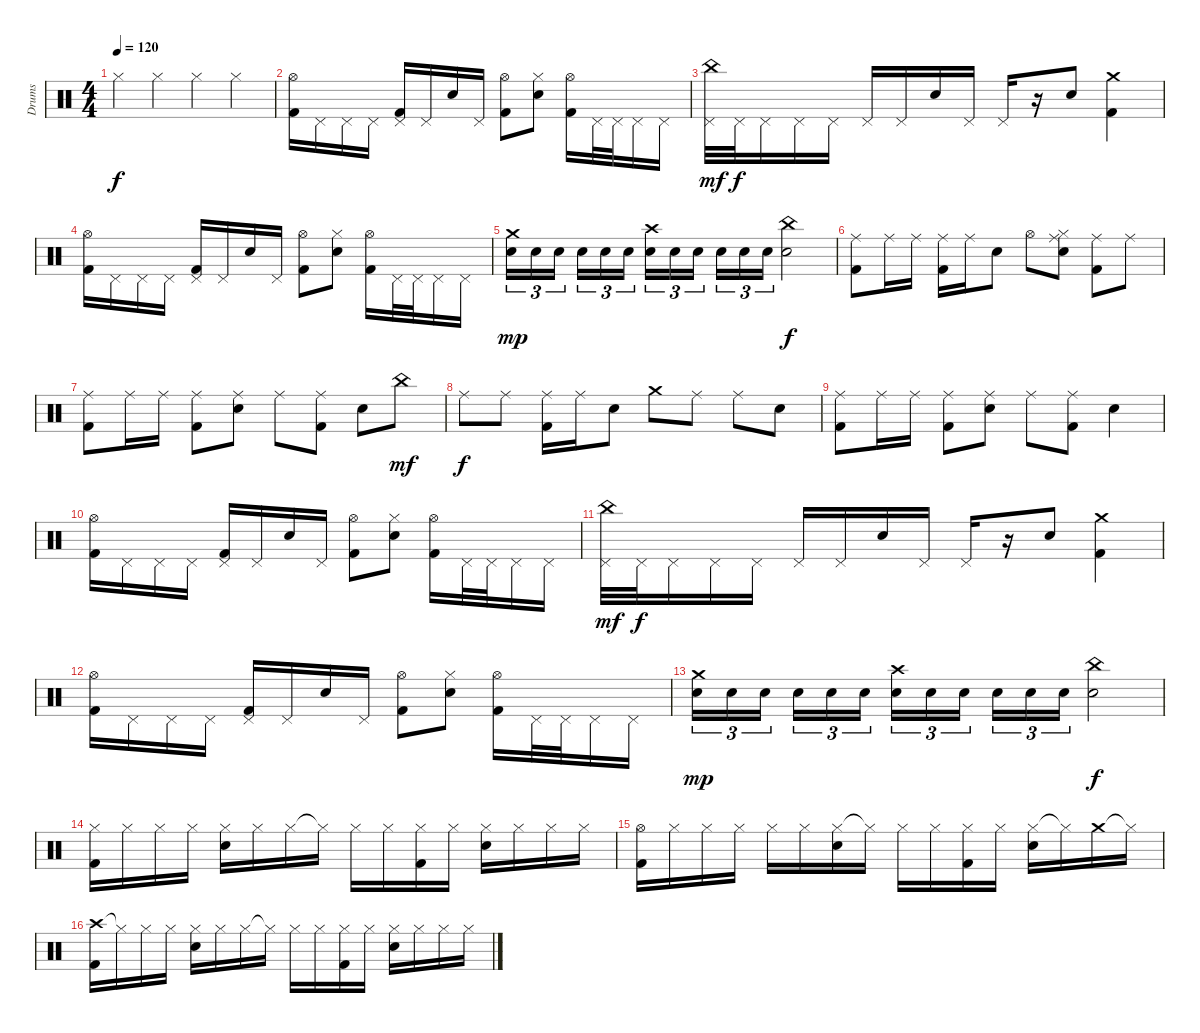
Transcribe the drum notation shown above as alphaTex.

\track ("Drums" "Drums") {instrument percussion}
\staff {score}
\articulation defaults
\ts (4 4)
\tempo 120
\clef neutral
\ks c "Hi-Hat (closed)".4{dy f} "Hi-Hat (closed)".4 "Hi-Hat (closed)".4 "Hi-Hat (closed)".4
|
("Hi-Hat (open)" "Kick (hit) 2").16 "Pedal Hi-Hat (hit)".16 "Pedal Hi-Hat (hit)".16 "Pedal Hi-Hat (hit)".16 ("Pedal Hi-Hat (hit)" "Kick (hit) 2").16 "Pedal Hi-Hat (hit)".16 "Electric Snare (hit)".16 "Pedal Hi-Hat (hit)".16 ("Hi-Hat (open)" "Kick (hit) 2").8 ("Hi-Hat (closed)" "Electric Snare (hit)").8 ("Hi-Hat (open)" "Kick (hit) 2").16 "Pedal Hi-Hat (hit)".32 "Pedal Hi-Hat (hit)".32 "Pedal Hi-Hat (hit)".16 "Pedal Hi-Hat (hit)".16 |
("China (hit)" "Pedal Hi-Hat (hit)").32{dy mf} "Pedal Hi-Hat (hit)".32{dy f} "Pedal Hi-Hat (hit)".16 "Pedal Hi-Hat (hit)".16 "Pedal Hi-Hat (hit)".16 "Pedal Hi-Hat (hit)".16 "Pedal Hi-Hat (hit)".16 "Electric Snare (hit)".16 "Pedal Hi-Hat (hit)".16 "Pedal Hi-Hat (hit)".16 r.16 "Electric Snare (hit)".8 ("Crash medium (hit)" "Kick (hit) 2").4 |
("Hi-Hat (open)" "Kick (hit) 2").16 "Pedal Hi-Hat (hit)".16 "Pedal Hi-Hat (hit)".16 "Pedal Hi-Hat (hit)".16 ("Pedal Hi-Hat (hit)" "Kick (hit) 2").16 "Pedal Hi-Hat (hit)".16 "Electric Snare (hit)".16 "Pedal Hi-Hat (hit)".16 ("Hi-Hat (open)" "Kick (hit) 2").8 ("Hi-Hat (closed)" "Electric Snare (hit)").8 ("Hi-Hat (open)" "Kick (hit) 2").16 "Pedal Hi-Hat (hit)".32 "Pedal Hi-Hat (hit)".32 "Pedal Hi-Hat (hit)".16 "Pedal Hi-Hat (hit)".16 |
("Crash medium (hit)" "Electric Snare (hit)").16{tu (3 2) dy mp} "Electric Snare (hit)".16{tu (3 2)} "Electric Snare (hit)".16{tu (3 2)} "Electric Snare (hit)".16{tu (3 2)} "Electric Snare (hit)".16{tu (3 2)} "Electric Snare (hit)".16{tu (3 2)} ("Crash high (hit)" "Electric Snare (hit)").16{tu (3 2)} "Electric Snare (hit)".16{tu (3 2)} "Electric Snare (hit)".16{tu (3 2)} "Electric Snare (hit)".16{tu (3 2)} "Electric Snare (hit)".16{tu (3 2)} "Electric Snare (hit)".16{tu (3 2)} ("China (hit)" "Electric Snare (hit)").2{dy f} |
("Ride (middle)" "Kick (hit) 2").8 "Ride (middle)".16 "Ride (middle)".16 ("Ride (middle)" "Kick (hit) 2").16 "Ride (middle)".16 "Electric Snare (hit)".8 "Hi-Hat (open)".8 ("Ride (middle)" "Hi-Hat (closed)" "Electric Snare (hit)").8 ("Ride (middle)" "Kick (hit) 2").8 "Ride (middle)".8 |
("Ride (middle)" "Kick (hit) 2").8 "Ride (middle)".16 "Ride (middle)".16 ("Ride (middle)" "Kick (hit) 2").8 ("Ride (middle)" "Electric Snare (hit)").8 "Ride (middle)".8 ("Ride (middle)" "Kick (hit) 2").8 "Electric Snare (hit)".8 "China (hit)".8{dy mf} |
"Ride (middle)".8{dy f} "Ride (middle)".8 ("Ride (middle)" "Kick (hit) 2").16 "Ride (middle)".16 "Electric Snare (hit)".8 "Crash medium (hit)".8 "Ride (middle)".8 "Ride (middle)".8 "Electric Snare (hit)".8 |
("Ride (middle)" "Kick (hit) 2").8 "Ride (middle)".16 "Ride (middle)".16 ("Ride (middle)" "Kick (hit) 2").8 ("Ride (middle)" "Electric Snare (hit)").8 "Ride (middle)".8 ("Ride (middle)" "Kick (hit) 2").8 "Electric Snare (hit)".4 |
("Hi-Hat (open)" "Kick (hit) 2").16 "Pedal Hi-Hat (hit)".16 "Pedal Hi-Hat (hit)".16 "Pedal Hi-Hat (hit)".16 ("Pedal Hi-Hat (hit)" "Kick (hit) 2").16 "Pedal Hi-Hat (hit)".16 "Electric Snare (hit)".16 "Pedal Hi-Hat (hit)".16 ("Hi-Hat (open)" "Kick (hit) 2").8 ("Hi-Hat (closed)" "Electric Snare (hit)").8 ("Hi-Hat (open)" "Kick (hit) 2").16 "Pedal Hi-Hat (hit)".32 "Pedal Hi-Hat (hit)".32 "Pedal Hi-Hat (hit)".16 "Pedal Hi-Hat (hit)".16 |
("China (hit)" "Pedal Hi-Hat (hit)").32{dy mf} "Pedal Hi-Hat (hit)".32{dy f} "Pedal Hi-Hat (hit)".16 "Pedal Hi-Hat (hit)".16 "Pedal Hi-Hat (hit)".16 "Pedal Hi-Hat (hit)".16 "Pedal Hi-Hat (hit)".16 "Electric Snare (hit)".16 "Pedal Hi-Hat (hit)".16 "Pedal Hi-Hat (hit)".16 r.16 "Electric Snare (hit)".8 ("Crash medium (hit)" "Kick (hit) 2").4 |
("Hi-Hat (open)" "Kick (hit) 2").16 "Pedal Hi-Hat (hit)".16 "Pedal Hi-Hat (hit)".16 "Pedal Hi-Hat (hit)".16 ("Pedal Hi-Hat (hit)" "Kick (hit) 2").16 "Pedal Hi-Hat (hit)".16 "Electric Snare (hit)".16 "Pedal Hi-Hat (hit)".16 ("Hi-Hat (open)" "Kick (hit) 2").8 ("Hi-Hat (closed)" "Electric Snare (hit)").8 ("Hi-Hat (open)" "Kick (hit) 2").16 "Pedal Hi-Hat (hit)".32 "Pedal Hi-Hat (hit)".32 "Pedal Hi-Hat (hit)".16 "Pedal Hi-Hat (hit)".16 |
("Crash medium (hit)" "Electric Snare (hit)").16{tu (3 2) dy mp} "Electric Snare (hit)".16{tu (3 2)} "Electric Snare (hit)".16{tu (3 2)} "Electric Snare (hit)".16{tu (3 2)} "Electric Snare (hit)".16{tu (3 2)} "Electric Snare (hit)".16{tu (3 2)} ("Crash high (hit)" "Electric Snare (hit)").16{tu (3 2)} "Electric Snare (hit)".16{tu (3 2)} "Electric Snare (hit)".16{tu (3 2)} "Electric Snare (hit)".16{tu (3 2)} "Electric Snare (hit)".16{tu (3 2)} "Electric Snare (hit)".16{tu (3 2)} ("China (hit)" "Electric Snare (hit)").2{dy f} |
("Hi-Hat (closed)" "Kick (hit) 2").16 "Hi-Hat (closed)".16 "Hi-Hat (closed)".16 "Hi-Hat (closed)".16 ("Hi-Hat (closed)" "Electric Snare (hit)").16 "Hi-Hat (closed)".16 "Hi-Hat (closed)".16 "Hi-Hat (closed)"{t}.16 "Hi-Hat (closed)".16 "Hi-Hat (closed)".16 ("Hi-Hat (closed)" "Kick (hit) 2").16 "Hi-Hat (closed)".16 ("Hi-Hat (closed)" "Electric Snare (hit)").16 "Hi-Hat (closed)".16 "Hi-Hat (closed)".16 "Hi-Hat (closed)".16 |
("Hi-Hat (open)" "Kick (hit) 2").16 "Hi-Hat (closed)".16 "Hi-Hat (closed)".16 "Hi-Hat (closed)".16 "Hi-Hat (closed)".16 "Hi-Hat (closed)".16 ("Hi-Hat (closed)" "Electric Snare (hit)").16 "Hi-Hat (closed)"{t}.16 "Hi-Hat (closed)".16 "Hi-Hat (closed)".16 ("Hi-Hat (closed)" "Kick (hit) 2").16 "Hi-Hat (closed)".16 ("Hi-Hat (closed)" "Electric Snare (hit)").16 "Hi-Hat (closed)"{t}.16 "Crash medium (hit)".16 "Hi-Hat (closed)"{t}.16 |
("Crash high (hit)" "Kick (hit) 2").16 "Hi-Hat (closed)"{t}.16 "Hi-Hat (closed)".16 "Hi-Hat (closed)".16 ("Hi-Hat (closed)" "Electric Snare (hit)").16 "Hi-Hat (closed)".16 "Hi-Hat (closed)".16 "Hi-Hat (closed)"{t}.16 "Hi-Hat (closed)".16 "Hi-Hat (closed)".16 ("Hi-Hat (closed)" "Kick (hit) 2").16 "Hi-Hat (closed)".16 ("Hi-Hat (closed)" "Electric Snare (hit)").16 "Hi-Hat (closed)".16 "Hi-Hat (closed)".16 "Hi-Hat (closed)".16
